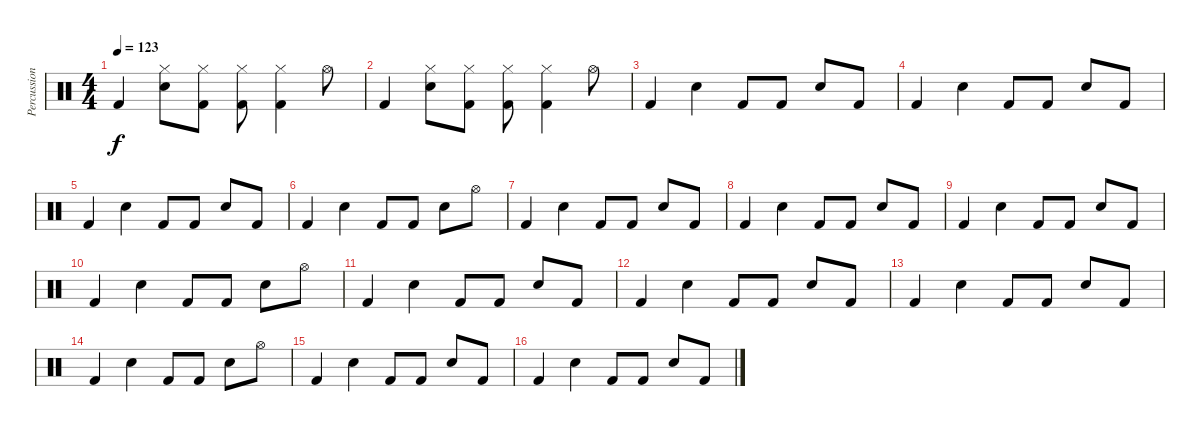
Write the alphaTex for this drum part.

\track ("Percussions" "Percussion") {instrument percussion}
\staff {score}
\articulation defaults
\ts (4 4)
\tempo 123
\clef neutral
\ks c "Kick (hit) 2".4{dy f}
("Snare (hit) 2" "Hi-Hat (closed)").8 ("Hi-Hat (closed)" "Kick (hit) 2").8 ("Hi-Hat (closed)" "Kick (hit) 2").8 ("Hi-Hat (closed)" "Kick (hit) 2").4 "Hi-Hat (open)".8 |
"Kick (hit) 2".4 ("Snare (hit) 2" "Hi-Hat (closed)").8 ("Hi-Hat (closed)" "Kick (hit) 2").8 ("Hi-Hat (closed)" "Kick (hit) 2").8 ("Hi-Hat (closed)" "Kick (hit) 2").4 "Hi-Hat (open)".8 |
"Kick (hit) 2".4 "Snare (hit) 2".4 "Kick (hit) 2".8 "Kick (hit) 2".8 "Snare (hit) 2".8 "Kick (hit) 2".8 |
"Kick (hit) 2".4 "Snare (hit) 2".4 "Kick (hit) 2".8 "Kick (hit) 2".8 "Snare (hit) 2".8 "Kick (hit) 2".8 |
"Kick (hit) 2".4 "Snare (hit) 2".4 "Kick (hit) 2".8 "Kick (hit) 2".8 "Snare (hit) 2".8 "Kick (hit) 2".8 |
"Kick (hit) 2".4 "Snare (hit) 2".4 "Kick (hit) 2".8 "Kick (hit) 2".8 "Snare (hit) 2".8 "Hi-Hat (open)".8 |
"Kick (hit) 2".4 "Snare (hit) 2".4 "Kick (hit) 2".8 "Kick (hit) 2".8 "Snare (hit) 2".8 "Kick (hit) 2".8 |
"Kick (hit) 2".4 "Snare (hit) 2".4 "Kick (hit) 2".8 "Kick (hit) 2".8 "Snare (hit) 2".8 "Kick (hit) 2".8 |
"Kick (hit) 2".4 "Snare (hit) 2".4 "Kick (hit) 2".8 "Kick (hit) 2".8 "Snare (hit) 2".8 "Kick (hit) 2".8 |
"Kick (hit) 2".4 "Snare (hit) 2".4 "Kick (hit) 2".8 "Kick (hit) 2".8 "Snare (hit) 2".8 "Hi-Hat (open)".8 |
"Kick (hit) 2".4 "Snare (hit) 2".4 "Kick (hit) 2".8 "Kick (hit) 2".8 "Snare (hit) 2".8 "Kick (hit) 2".8 |
"Kick (hit) 2".4 "Snare (hit) 2".4 "Kick (hit) 2".8 "Kick (hit) 2".8 "Snare (hit) 2".8 "Kick (hit) 2".8 |
"Kick (hit) 2".4 "Snare (hit) 2".4 "Kick (hit) 2".8 "Kick (hit) 2".8 "Snare (hit) 2".8 "Kick (hit) 2".8 |
"Kick (hit) 2".4 "Snare (hit) 2".4 "Kick (hit) 2".8 "Kick (hit) 2".8 "Snare (hit) 2".8 "Hi-Hat (open)".8 |
"Kick (hit) 2".4 "Snare (hit) 2".4 "Kick (hit) 2".8 "Kick (hit) 2".8 "Snare (hit) 2".8 "Kick (hit) 2".8 |
"Kick (hit) 2".4 "Snare (hit) 2".4 "Kick (hit) 2".8 "Kick (hit) 2".8 "Snare (hit) 2".8 "Kick (hit) 2".8
